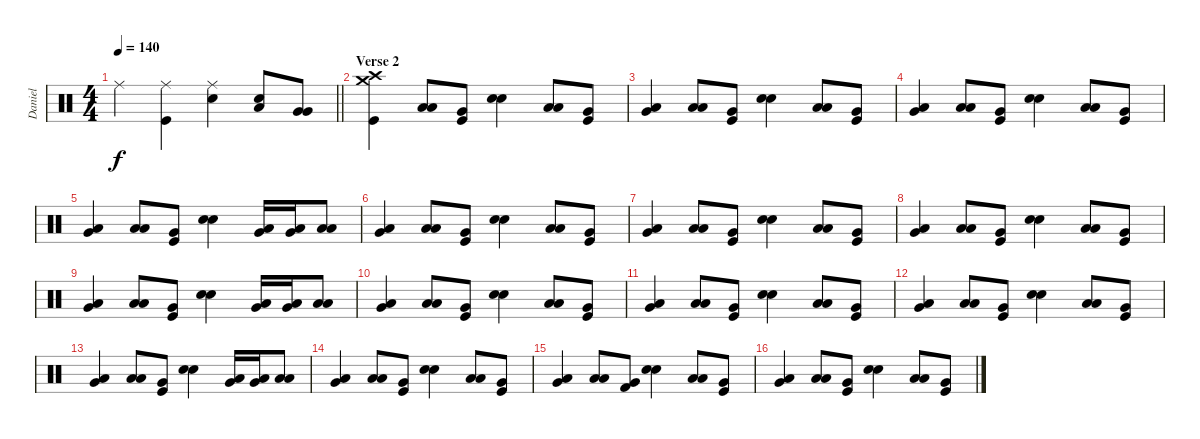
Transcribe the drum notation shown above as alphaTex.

\track ("Daniel" "Daniel") {instrument percussion}
\staff {score}
\articulation defaults
\ts (4 4)
\tempo 140
\clef neutral
\barLineRight lightlight
\ks c "Ride (middle)".4{dy f}
("Ride (middle)" "Kick (hit)").4 ("Ride (middle)" "Electric Snare (hit)").4 ("Low Tom (hit)" "Electric Snare (hit)").8 ("Very Low Tom (hit)" "Very Low Tom (hit)").8 |
\section ("" "Verse 2")
("Crash medium (hit)" "Crash high (hit)" "Kick (hit)").4 ("Low Tom (hit)" "Low Tom (hit)").8 ("Kick (hit)" "Very Low Tom (hit)").8 ("Electric Snare (hit)" "Electric Snare (hit)").4 ("Low Tom (hit)" "Low Tom (hit)").8 ("Kick (hit)" "Very Low Tom (hit)").8 |
("Very Low Tom (hit)" "Low Floor Tom (hit)").4 ("Low Tom (hit)" "Low Tom (hit)").8 ("Kick (hit)" "Very Low Tom (hit)").8 ("Electric Snare (hit)" "Electric Snare (hit)").4 ("Low Tom (hit)" "Low Tom (hit)").8 ("Kick (hit)" "Very Low Tom (hit)").8 |
("Very Low Tom (hit)" "Low Floor Tom (hit)").4 ("Low Tom (hit)" "Low Tom (hit)").8 ("Kick (hit)" "Very Low Tom (hit)").8 ("Electric Snare (hit)" "Electric Snare (hit)").4 ("Low Tom (hit)" "Low Tom (hit)").8 ("Kick (hit)" "Very Low Tom (hit)").8 |
("Very Low Tom (hit)" "Low Floor Tom (hit)").4 ("Low Tom (hit)" "Low Tom (hit)").8 ("Kick (hit)" "Very Low Tom (hit)").8 ("Electric Snare (hit)" "Electric Snare (hit)").4 ("Low Tom (hit)" "Very Low Tom (hit)").16 ("Low Tom (hit)" "Very Low Tom (hit)").16 ("Low Tom (hit)" "Low Tom (hit)").8 |
("Very Low Tom (hit)" "Low Floor Tom (hit)").4 ("Low Tom (hit)" "Low Tom (hit)").8 ("Kick (hit)" "Very Low Tom (hit)").8 ("Electric Snare (hit)" "Electric Snare (hit)").4 ("Low Tom (hit)" "Low Tom (hit)").8 ("Kick (hit)" "Very Low Tom (hit)").8 |
("Very Low Tom (hit)" "Low Floor Tom (hit)").4 ("Low Tom (hit)" "Low Tom (hit)").8 ("Kick (hit)" "Very Low Tom (hit)").8 ("Electric Snare (hit)" "Electric Snare (hit)").4 ("Low Tom (hit)" "Low Tom (hit)").8 ("Kick (hit)" "Very Low Tom (hit)").8 |
("Very Low Tom (hit)" "Low Floor Tom (hit)").4 ("Low Tom (hit)" "Low Tom (hit)").8 ("Kick (hit)" "Very Low Tom (hit)").8 ("Electric Snare (hit)" "Electric Snare (hit)").4 ("Low Tom (hit)" "Low Tom (hit)").8 ("Kick (hit)" "Very Low Tom (hit)").8 |
("Very Low Tom (hit)" "Low Floor Tom (hit)").4 ("Low Tom (hit)" "Low Tom (hit)").8 ("Kick (hit)" "Very Low Tom (hit)").8 ("Electric Snare (hit)" "Electric Snare (hit)").4 ("Low Tom (hit)" "Very Low Tom (hit)").16 ("Low Tom (hit)" "Very Low Tom (hit)").16 ("Low Tom (hit)" "Low Tom (hit)").8 |
("Very Low Tom (hit)" "Low Floor Tom (hit)").4 ("Low Tom (hit)" "Low Tom (hit)").8 ("Kick (hit)" "Very Low Tom (hit)").8 ("Electric Snare (hit)" "Electric Snare (hit)").4 ("Low Tom (hit)" "Low Tom (hit)").8 ("Kick (hit)" "Very Low Tom (hit)").8 |
("Very Low Tom (hit)" "Low Floor Tom (hit)").4 ("Low Tom (hit)" "Low Tom (hit)").8 ("Kick (hit)" "Very Low Tom (hit)").8 ("Electric Snare (hit)" "Electric Snare (hit)").4 ("Low Tom (hit)" "Low Tom (hit)").8 ("Kick (hit)" "Very Low Tom (hit)").8 |
("Very Low Tom (hit)" "Low Floor Tom (hit)").4 ("Low Tom (hit)" "Low Tom (hit)").8 ("Kick (hit)" "Very Low Tom (hit)").8 ("Electric Snare (hit)" "Electric Snare (hit)").4 ("Low Tom (hit)" "Low Tom (hit)").8 ("Kick (hit)" "Very Low Tom (hit)").8 |
("Very Low Tom (hit)" "Low Floor Tom (hit)").4 ("Low Tom (hit)" "Low Tom (hit)").8 ("Kick (hit)" "Very Low Tom (hit)").8 ("Electric Snare (hit)" "Electric Snare (hit)").4 ("Low Tom (hit)" "Very Low Tom (hit)").16 ("Low Tom (hit)" "Very Low Tom (hit)").16 ("Low Tom (hit)" "Low Tom (hit)").8 |
("Very Low Tom (hit)" "Low Floor Tom (hit)").4 ("Low Tom (hit)" "Low Tom (hit)").8 ("Kick (hit)" "Very Low Tom (hit)").8 ("Electric Snare (hit)" "Electric Snare (hit)").4 ("Low Tom (hit)" "Low Tom (hit)").8 ("Kick (hit)" "Very Low Tom (hit)").8 |
("Very Low Tom (hit)" "Low Floor Tom (hit)").4 ("Low Tom (hit)" "Low Tom (hit)").8 ("Kick (hit) 2" "Very Low Tom (hit)").8 ("Electric Snare (hit)" "Electric Snare (hit)").4 ("Low Tom (hit)" "Low Tom (hit)").8 ("Kick (hit)" "Very Low Tom (hit)").8 |
("Very Low Tom (hit)" "Low Floor Tom (hit)").4 ("Low Tom (hit)" "Low Tom (hit)").8 ("Kick (hit)" "Very Low Tom (hit)").8 ("Electric Snare (hit)" "Electric Snare (hit)").4 ("Low Tom (hit)" "Low Tom (hit)").8 ("Kick (hit)" "Very Low Tom (hit)").8
